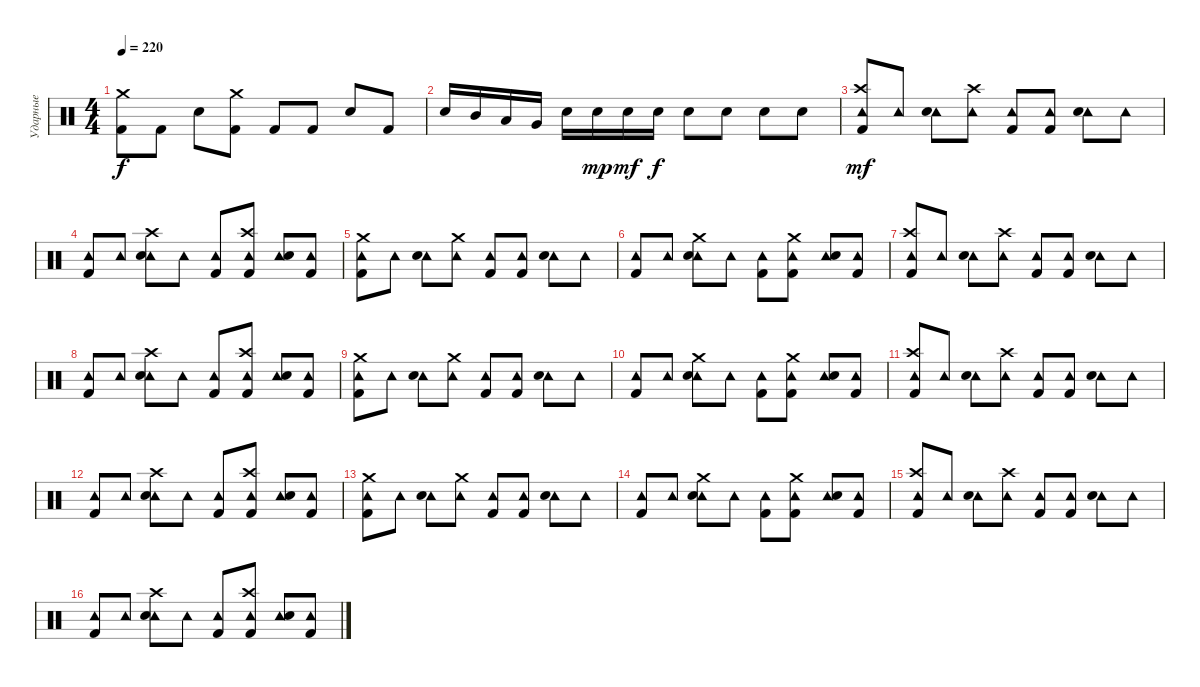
\track ("Ударные" "Ударные") {instrument percussion}
\staff {score}
\articulation defaults
\ts (4 4)
\tempo 220
\clef neutral
\ks c
("Crash medium (hit)" "Kick (hit) 2").8{dy f} "Kick (hit) 2".8 "Electric Snare (hit)".8 ("Crash medium (hit)" "Kick (hit) 2").8 "Kick (hit) 2".8 "Kick (hit) 2".8 "Electric Snare (hit)".8 "Kick (hit) 2".8 |
"Electric Snare (hit)".16 "Mid Tom (hit)".16 "Low Tom (hit)".16 "Very Low Tom (hit)".16 "Electric Snare (hit)".16 "Electric Snare (hit)".16{dy mp} "Electric Snare (hit)".16{dy mf} "Electric Snare (hit)".16{dy f} "Electric Snare (hit)".8 "Electric Snare (hit)".8 "Electric Snare (hit)".8 "Electric Snare (hit)".8 |
("Crash high (hit)" "Tambourine (hit)" "Kick (hit) 2").8{dy mf} "Tambourine (hit)".8 ("Tambourine (hit)" "Electric Snare (hit)").8 ("Crash high (hit)" "Tambourine (hit)").8 ("Tambourine (hit)" "Kick (hit) 2").8 ("Tambourine (hit)" "Kick (hit) 2").8 ("Tambourine (hit)" "Electric Snare (hit)").8 "Tambourine (hit)".8 |
("Tambourine (hit)" "Kick (hit) 2").8 "Tambourine (hit)".8 ("Crash high (hit)" "Tambourine (hit)" "Electric Snare (hit)").8 "Tambourine (hit)".8 ("Tambourine (hit)" "Kick (hit) 2").8 ("Crash high (hit)" "Tambourine (hit)" "Kick (hit) 2").8 ("Tambourine (hit)" "Electric Snare (hit)").8 ("Tambourine (hit)" "Kick (hit) 2").8 |
("Crash medium (hit)" "Tambourine (hit)" "Kick (hit) 2").8 "Tambourine (hit)".8 ("Tambourine (hit)" "Electric Snare (hit)").8 ("Crash medium (hit)" "Tambourine (hit)").8 ("Tambourine (hit)" "Kick (hit) 2").8 ("Tambourine (hit)" "Kick (hit) 2").8 ("Tambourine (hit)" "Electric Snare (hit)").8 "Tambourine (hit)".8 |
("Tambourine (hit)" "Kick (hit) 2").8 "Tambourine (hit)".8 ("Crash medium (hit)" "Tambourine (hit)" "Electric Snare (hit)").8 "Tambourine (hit)".8 ("Tambourine (hit)" "Kick (hit) 2").8 ("Crash medium (hit)" "Tambourine (hit)" "Kick (hit) 2").8 ("Tambourine (hit)" "Electric Snare (hit)").8 ("Tambourine (hit)" "Kick (hit) 2").8 |
("Crash high (hit)" "Tambourine (hit)" "Kick (hit) 2").8 "Tambourine (hit)".8 ("Tambourine (hit)" "Electric Snare (hit)").8 ("Crash high (hit)" "Tambourine (hit)").8 ("Tambourine (hit)" "Kick (hit) 2").8 ("Tambourine (hit)" "Kick (hit) 2").8 ("Tambourine (hit)" "Electric Snare (hit)").8 "Tambourine (hit)".8 |
("Tambourine (hit)" "Kick (hit) 2").8 "Tambourine (hit)".8 ("Crash high (hit)" "Tambourine (hit)" "Electric Snare (hit)").8 "Tambourine (hit)".8 ("Tambourine (hit)" "Kick (hit) 2").8 ("Crash high (hit)" "Tambourine (hit)" "Kick (hit) 2").8 ("Tambourine (hit)" "Electric Snare (hit)").8 ("Tambourine (hit)" "Kick (hit) 2").8 |
("Crash medium (hit)" "Tambourine (hit)" "Kick (hit) 2").8 "Tambourine (hit)".8 ("Tambourine (hit)" "Electric Snare (hit)").8 ("Crash medium (hit)" "Tambourine (hit)").8 ("Tambourine (hit)" "Kick (hit) 2").8 ("Tambourine (hit)" "Kick (hit) 2").8 ("Tambourine (hit)" "Electric Snare (hit)").8 "Tambourine (hit)".8 |
("Tambourine (hit)" "Kick (hit) 2").8 "Tambourine (hit)".8 ("Crash medium (hit)" "Tambourine (hit)" "Electric Snare (hit)").8 "Tambourine (hit)".8 ("Tambourine (hit)" "Kick (hit) 2").8 ("Crash medium (hit)" "Tambourine (hit)" "Kick (hit) 2").8 ("Tambourine (hit)" "Electric Snare (hit)").8 ("Tambourine (hit)" "Kick (hit) 2").8 |
("Crash high (hit)" "Tambourine (hit)" "Kick (hit) 2").8 "Tambourine (hit)".8 ("Tambourine (hit)" "Electric Snare (hit)").8 ("Crash high (hit)" "Tambourine (hit)").8 ("Tambourine (hit)" "Kick (hit) 2").8 ("Tambourine (hit)" "Kick (hit) 2").8 ("Tambourine (hit)" "Electric Snare (hit)").8 "Tambourine (hit)".8 |
("Tambourine (hit)" "Kick (hit) 2").8 "Tambourine (hit)".8 ("Crash high (hit)" "Tambourine (hit)" "Electric Snare (hit)").8 "Tambourine (hit)".8 ("Tambourine (hit)" "Kick (hit) 2").8 ("Crash high (hit)" "Tambourine (hit)" "Kick (hit) 2").8 ("Tambourine (hit)" "Electric Snare (hit)").8 ("Tambourine (hit)" "Kick (hit) 2").8 |
("Crash medium (hit)" "Tambourine (hit)" "Kick (hit) 2").8 "Tambourine (hit)".8 ("Tambourine (hit)" "Electric Snare (hit)").8 ("Crash medium (hit)" "Tambourine (hit)").8 ("Tambourine (hit)" "Kick (hit) 2").8 ("Tambourine (hit)" "Kick (hit) 2").8 ("Tambourine (hit)" "Electric Snare (hit)").8 "Tambourine (hit)".8 |
("Tambourine (hit)" "Kick (hit) 2").8 "Tambourine (hit)".8 ("Crash medium (hit)" "Tambourine (hit)" "Electric Snare (hit)").8 "Tambourine (hit)".8 ("Tambourine (hit)" "Kick (hit) 2").8 ("Crash medium (hit)" "Tambourine (hit)" "Kick (hit) 2").8 ("Tambourine (hit)" "Electric Snare (hit)").8 ("Tambourine (hit)" "Kick (hit) 2").8 |
("Crash high (hit)" "Tambourine (hit)" "Kick (hit) 2").8 "Tambourine (hit)".8 ("Tambourine (hit)" "Electric Snare (hit)").8 ("Crash high (hit)" "Tambourine (hit)").8 ("Tambourine (hit)" "Kick (hit) 2").8 ("Tambourine (hit)" "Kick (hit) 2").8 ("Tambourine (hit)" "Electric Snare (hit)").8 "Tambourine (hit)".8 |
("Tambourine (hit)" "Kick (hit) 2").8 "Tambourine (hit)".8 ("Crash high (hit)" "Tambourine (hit)" "Electric Snare (hit)").8 "Tambourine (hit)".8 ("Tambourine (hit)" "Kick (hit) 2").8 ("Crash high (hit)" "Tambourine (hit)" "Kick (hit) 2").8 ("Tambourine (hit)" "Electric Snare (hit)").8 ("Tambourine (hit)" "Kick (hit) 2").8
